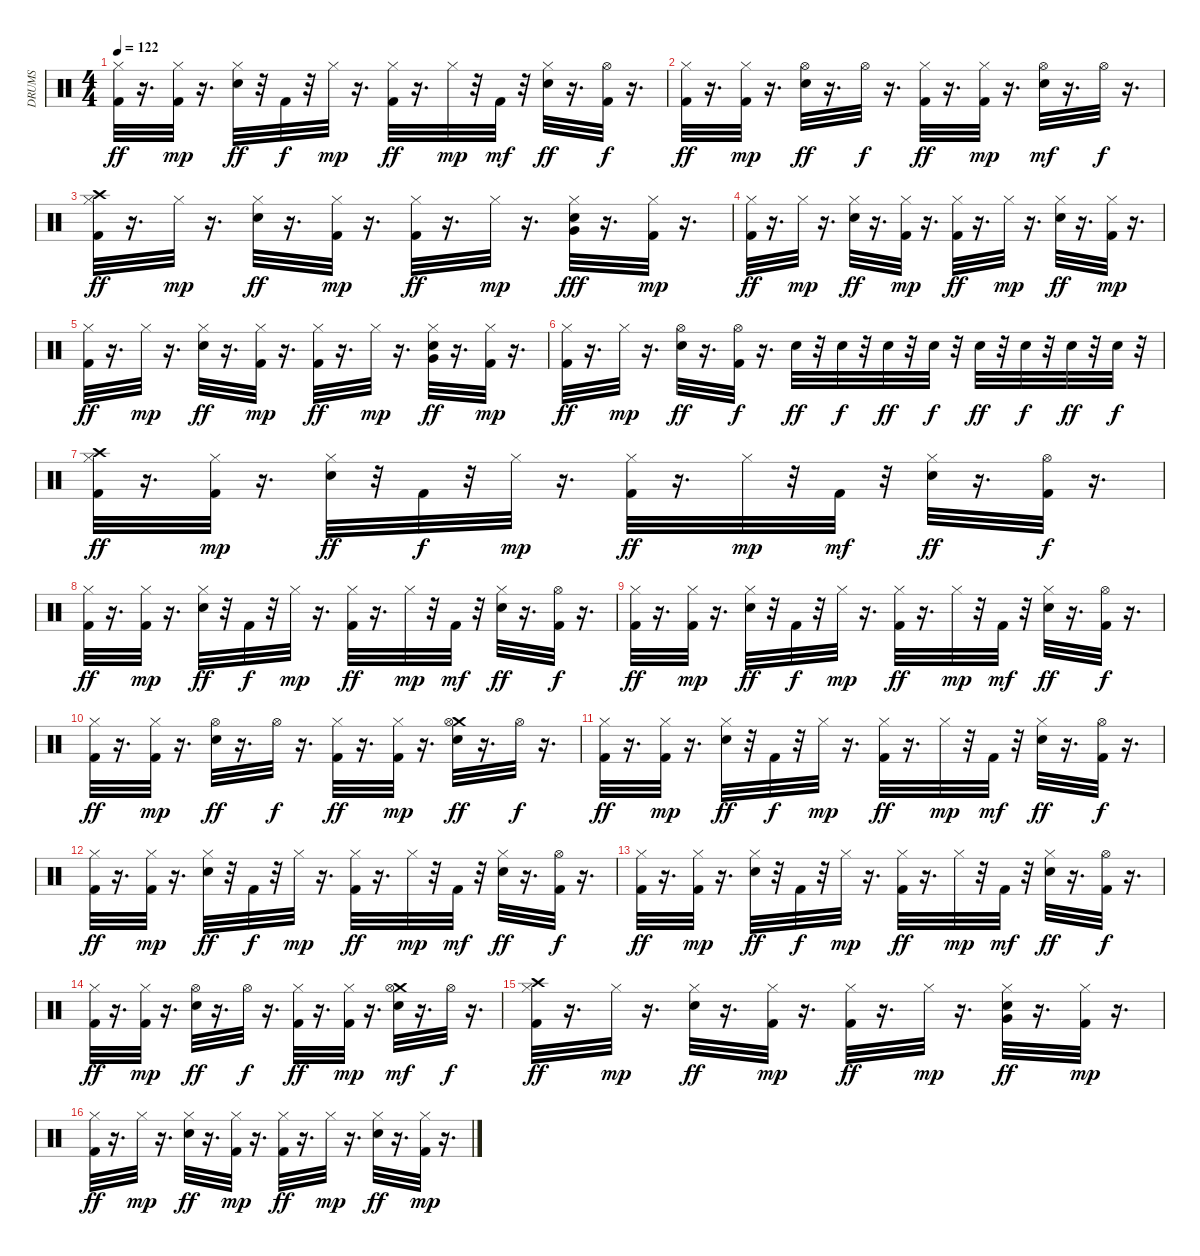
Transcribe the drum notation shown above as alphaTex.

\track ("DRUMS" "DRUMS") {instrument percussion}
\staff {score}
\articulation defaults
\ts (4 4)
\tempo 122
\clef neutral
\ks c
("Hi-Hat (closed)" "Kick (hit) 2").32{dy ff} r.16{d} ("Hi-Hat (closed)" "Kick (hit) 2").32{dy mp} r.16{d} ("Snare (hit) 2" "Hi-Hat (closed)").32{dy ff} r.32 "Kick (hit) 2".32{dy f} r.32 "Hi-Hat (closed)".32{dy mp} r.16{d} ("Hi-Hat (closed)" "Kick (hit) 2").32{dy ff} r.16{d} "Hi-Hat (closed)".32{dy mp} r.32 "Kick (hit) 2".32{dy mf} r.32 ("Snare (hit) 2" "Hi-Hat (closed)").32{dy ff} r.16{d} ("Kick (hit) 2" "Hi-Hat (open)").32{dy f} r.16{d} |
("Hi-Hat (closed)" "Kick (hit) 2").32{dy ff} r.16{d} ("Kick (hit) 2" "Hi-Hat (closed)").32{dy mp} r.16{d} ("Hi-Hat (open)" "Snare (hit) 2").32{dy ff} r.16{d} "Hi-Hat (open)".32{dy f} r.16{d} ("Kick (hit) 2" "Hi-Hat (closed)").32{dy ff} r.16{d} ("Kick (hit) 2" "Hi-Hat (closed)").32{dy mp} r.16{d} ("Snare (hit) 2" "Hi-Hat (open)").32{dy mf} r.16{d} "Hi-Hat (open)".32{dy f} r.16{d} |
("Hi-Hat (closed)" "Kick (hit) 2" "Crash high (hit)").32{dy ff} r.16{d} "Hi-Hat (closed)".32{dy mp} r.16{d} ("Hi-Hat (closed)" "Snare (hit) 2").32{dy ff} r.16{d} ("Kick (hit) 2" "Hi-Hat (closed)").32{dy mp} r.16{d} ("Hi-Hat (closed)" "Kick (hit) 2").32{dy ff} r.16{d} "Hi-Hat (closed)".32{dy mp} r.16{d} ("Snare (hit) 2" "Hi-Hat (closed)" "Very Low Tom (hit)").32{dy fff} r.16{d} ("Kick (hit) 2" "Hi-Hat (closed)").32{dy mp} r.16{d} |
("Kick (hit) 2" "Hi-Hat (closed)").32{dy ff} r.16{d} "Hi-Hat (closed)".32{dy mp} r.16{d} ("Hi-Hat (closed)" "Snare (hit) 2").32{dy ff} r.16{d} ("Kick (hit) 2" "Hi-Hat (closed)").32{dy mp} r.16{d} ("Kick (hit) 2" "Hi-Hat (closed)").32{dy ff} r.16{d} "Hi-Hat (closed)".32{dy mp} r.16{d} ("Snare (hit) 2" "Hi-Hat (closed)").32{dy ff} r.16{d} ("Kick (hit) 2" "Hi-Hat (closed)").32{dy mp} r.16{d} |
("Kick (hit) 2" "Hi-Hat (closed)").32{dy ff} r.16{d} "Hi-Hat (closed)".32{dy mp} r.16{d} ("Snare (hit) 2" "Hi-Hat (closed)").32{dy ff} r.16{d} ("Kick (hit) 2" "Hi-Hat (closed)").32{dy mp} r.16{d} ("Hi-Hat (closed)" "Kick (hit) 2").32{dy ff} r.16{d} "Hi-Hat (closed)".32{dy mp} r.16{d} ("Very Low Tom (hit)" "Hi-Hat (closed)" "Snare (hit) 2").32{dy ff} r.16{d} ("Kick (hit) 2" "Hi-Hat (closed)").32{dy mp} r.16{d} |
("Kick (hit) 2" "Hi-Hat (closed)").32{dy ff} r.16{d} "Hi-Hat (closed)".32{dy mp} r.16{d} ("Snare (hit) 2" "Hi-Hat (open)").32{dy ff} r.16{d} ("Kick (hit) 2" "Hi-Hat (open)").32{dy f} r.16{d} "Snare (hit) 2".32{dy ff} r.32 "Snare (hit) 2".32{dy f} r.32 "Snare (hit) 2".32{dy ff} r.32 "Snare (hit) 2".32{dy f} r.32 "Snare (hit) 2".32{dy ff} r.32 "Snare (hit) 2".32{dy f} r.32 "Snare (hit) 2".32{dy ff} r.32 "Snare (hit) 2".32{dy f} r.32 |
("Kick (hit) 2" "Hi-Hat (closed)" "Crash high (hit)").32{dy ff} r.16{d} ("Hi-Hat (closed)" "Kick (hit) 2").32{dy mp} r.16{d} ("Snare (hit) 2" "Hi-Hat (closed)").32{dy ff} r.32 "Kick (hit) 2".32{dy f} r.32 "Hi-Hat (closed)".32{dy mp} r.16{d} ("Hi-Hat (closed)" "Kick (hit) 2").32{dy ff} r.16{d} "Hi-Hat (closed)".32{dy mp} r.32 "Kick (hit) 2".32{dy mf} r.32 ("Snare (hit) 2" "Hi-Hat (closed)").32{dy ff} r.16{d} ("Hi-Hat (open)" "Kick (hit) 2").32{dy f} r.16{d} |
("Kick (hit) 2" "Hi-Hat (closed)").32{dy ff} r.16{d} ("Kick (hit) 2" "Hi-Hat (closed)").32{dy mp} r.16{d} ("Hi-Hat (closed)" "Snare (hit) 2").32{dy ff} r.32 "Kick (hit) 2".32{dy f} r.32 "Hi-Hat (closed)".32{dy mp} r.16{d} ("Hi-Hat (closed)" "Kick (hit) 2").32{dy ff} r.16{d} "Hi-Hat (closed)".32{dy mp} r.32 "Kick (hit) 2".32{dy mf} r.32 ("Hi-Hat (closed)" "Snare (hit) 2").32{dy ff} r.16{d} ("Kick (hit) 2" "Hi-Hat (open)").32{dy f} r.16{d} |
("Hi-Hat (closed)" "Kick (hit) 2").32{dy ff} r.16{d} ("Hi-Hat (closed)" "Kick (hit) 2").32{dy mp} r.16{d} ("Snare (hit) 2" "Hi-Hat (closed)").32{dy ff} r.32 "Kick (hit) 2".32{dy f} r.32 "Hi-Hat (closed)".32{dy mp} r.16{d} ("Kick (hit) 2" "Hi-Hat (closed)").32{dy ff} r.16{d} "Hi-Hat (closed)".32{dy mp} r.32 "Kick (hit) 2".32{dy mf} r.32 ("Hi-Hat (closed)" "Snare (hit) 2").32{dy ff} r.16{d} ("Kick (hit) 2" "Hi-Hat (open)").32{dy f} r.16{d} |
("Hi-Hat (closed)" "Kick (hit) 2").32{dy ff} r.16{d} ("Kick (hit) 2" "Hi-Hat (closed)").32{dy mp} r.16{d} ("Hi-Hat (open)" "Snare (hit) 2").32{dy ff} r.16{d} "Hi-Hat (open)".32{dy f} r.16{d} ("Hi-Hat (closed)" "Kick (hit) 2").32{dy ff} r.16{d} ("Kick (hit) 2" "Hi-Hat (closed)").32{dy mp} r.16{d} ("Crash medium (hit)" "Hi-Hat (open)" "Snare (hit) 2").32{dy ff} r.16{d} "Hi-Hat (open)".32{dy f} r.16{d} |
("Hi-Hat (closed)" "Kick (hit) 2").32{dy ff} r.16{d} ("Hi-Hat (closed)" "Kick (hit) 2").32{dy mp} r.16{d} ("Hi-Hat (closed)" "Snare (hit) 2").32{dy ff} r.32 "Kick (hit) 2".32{dy f} r.32 "Hi-Hat (closed)".32{dy mp} r.16{d} ("Kick (hit) 2" "Hi-Hat (closed)").32{dy ff} r.16{d} "Hi-Hat (closed)".32{dy mp} r.32 "Kick (hit) 2".32{dy mf} r.32 ("Hi-Hat (closed)" "Snare (hit) 2").32{dy ff} r.16{d} ("Hi-Hat (open)" "Kick (hit) 2").32{dy f} r.16{d} |
("Kick (hit) 2" "Hi-Hat (closed)").32{dy ff} r.16{d} ("Kick (hit) 2" "Hi-Hat (closed)").32{dy mp} r.16{d} ("Hi-Hat (closed)" "Snare (hit) 2").32{dy ff} r.32 "Kick (hit) 2".32{dy f} r.32 "Hi-Hat (closed)".32{dy mp} r.16{d} ("Kick (hit) 2" "Hi-Hat (closed)").32{dy ff} r.16{d} "Hi-Hat (closed)".32{dy mp} r.32 "Kick (hit) 2".32{dy mf} r.32 ("Snare (hit) 2" "Hi-Hat (closed)").32{dy ff} r.16{d} ("Kick (hit) 2" "Hi-Hat (open)").32{dy f} r.16{d} |
("Kick (hit) 2" "Hi-Hat (closed)").32{dy ff} r.16{d} ("Hi-Hat (closed)" "Kick (hit) 2").32{dy mp} r.16{d} ("Snare (hit) 2" "Hi-Hat (closed)").32{dy ff} r.32 "Kick (hit) 2".32{dy f} r.32 "Hi-Hat (closed)".32{dy mp} r.16{d} ("Kick (hit) 2" "Hi-Hat (closed)").32{dy ff} r.16{d} "Hi-Hat (closed)".32{dy mp} r.32 "Kick (hit) 2".32{dy mf} r.32 ("Hi-Hat (closed)" "Snare (hit) 2").32{dy ff} r.16{d} ("Kick (hit) 2" "Hi-Hat (open)").32{dy f} r.16{d} |
("Kick (hit) 2" "Hi-Hat (closed)").32{dy ff} r.16{d} ("Kick (hit) 2" "Hi-Hat (closed)").32{dy mp} r.16{d} ("Hi-Hat (open)" "Snare (hit) 2").32{dy ff} r.16{d} "Hi-Hat (open)".32{dy f} r.16{d} ("Kick (hit) 2" "Hi-Hat (closed)").32{dy ff} r.16{d} ("Kick (hit) 2" "Hi-Hat (closed)").32{dy mp} r.16{d} ("Snare (hit) 2" "Crash medium (hit)" "Hi-Hat (open)").32{dy mf} r.16{d} "Hi-Hat (open)".32{dy f} r.16{d} |
("Crash high (hit)" "Kick (hit) 2" "Hi-Hat (closed)").32{dy ff} r.16{d} "Hi-Hat (closed)".32{dy mp} r.16{d} ("Hi-Hat (closed)" "Snare (hit) 2").32{dy ff} r.16{d} ("Kick (hit) 2" "Hi-Hat (closed)").32{dy mp} r.16{d} ("Hi-Hat (closed)" "Kick (hit) 2").32{dy ff} r.16{d} "Hi-Hat (closed)".32{dy mp} r.16{d} ("Hi-Hat (closed)" "Very Low Tom (hit)" "Snare (hit) 2").32{dy ff} r.16{d} ("Kick (hit) 2" "Hi-Hat (closed)").32{dy mp} r.16{d} |
("Hi-Hat (closed)" "Kick (hit) 2").32{dy ff} r.16{d} "Hi-Hat (closed)".32{dy mp} r.16{d} ("Hi-Hat (closed)" "Snare (hit) 2").32{dy ff} r.16{d} ("Hi-Hat (closed)" "Kick (hit) 2").32{dy mp} r.16{d} ("Hi-Hat (closed)" "Kick (hit) 2").32{dy ff} r.16{d} "Hi-Hat (closed)".32{dy mp} r.16{d} ("Snare (hit) 2" "Hi-Hat (closed)").32{dy ff} r.16{d} ("Kick (hit) 2" "Hi-Hat (closed)").32{dy mp} r.16{d}
